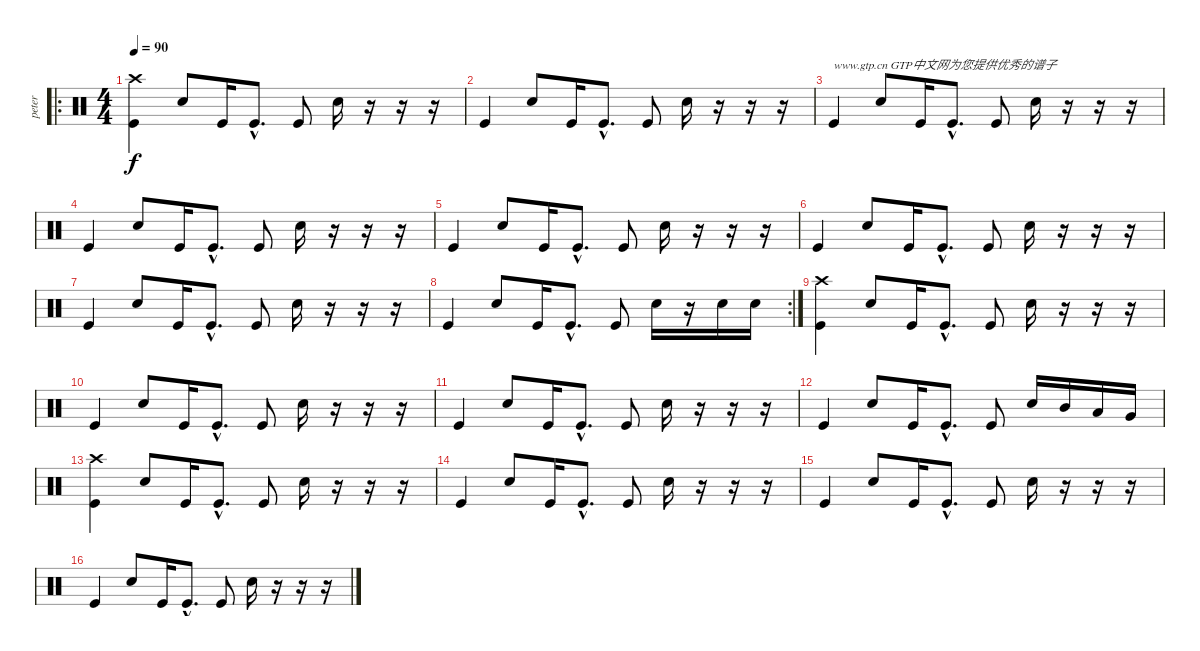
\track ("peter" "peter") {instrument percussion}
\staff {score}
\articulation defaults
\ro
\ts (4 4)
\tempo 90
\clef neutral
\ks c
("Crash high (hit)" "Kick (hit)").4{dy f} "Electric Snare (hit)".8 "Kick (hit)".16 "Kick (hit)"{hac}.8{d} "Kick (hit)".8 "Electric Snare (hit)".16 r.16 r.16 r.16 |
"Kick (hit)".4 "Electric Snare (hit)".8 "Kick (hit)".16 "Kick (hit)"{hac}.8{d} "Kick (hit)".8 "Electric Snare (hit)".16 r.16 r.16 r.16 |
"Kick (hit)".4{txt "www.gtp.cn GTP中文网为您提供优秀的谱子"} "Electric Snare (hit)".8 "Kick (hit)".16 "Kick (hit)"{hac}.8{d} "Kick (hit)".8 "Electric Snare (hit)".16 r.16 r.16 r.16 |
"Kick (hit)".4 "Electric Snare (hit)".8 "Kick (hit)".16 "Kick (hit)"{hac}.8{d} "Kick (hit)".8 "Electric Snare (hit)".16 r.16 r.16 r.16 |
"Kick (hit)".4 "Electric Snare (hit)".8 "Kick (hit)".16 "Kick (hit)"{hac}.8{d} "Kick (hit)".8 "Electric Snare (hit)".16 r.16 r.16 r.16 |
"Kick (hit)".4 "Electric Snare (hit)".8 "Kick (hit)".16 "Kick (hit)"{hac}.8{d} "Kick (hit)".8 "Electric Snare (hit)".16 r.16 r.16 r.16 |
"Kick (hit)".4 "Electric Snare (hit)".8 "Kick (hit)".16 "Kick (hit)"{hac}.8{d} "Kick (hit)".8 "Electric Snare (hit)".16 r.16 r.16 r.16 |
\rc 2 "Kick (hit)".4 "Electric Snare (hit)".8 "Kick (hit)".16 "Kick (hit)"{hac}.8{d} "Kick (hit)".8 "Electric Snare (hit)".16
r.16 "Electric Snare (hit)".16 "Electric Snare (hit)".16 |
("Crash high (hit)" "Kick (hit)").4 "Electric Snare (hit)".8 "Kick (hit)".16 "Kick (hit)"{hac}.8{d} "Kick (hit)".8 "Electric Snare (hit)".16 r.16 r.16 r.16 |
"Kick (hit)".4 "Electric Snare (hit)".8 "Kick (hit)".16 "Kick (hit)"{hac}.8{d} "Kick (hit)".8 "Electric Snare (hit)".16 r.16 r.16 r.16 |
"Kick (hit)".4 "Electric Snare (hit)".8 "Kick (hit)".16 "Kick (hit)"{hac}.8{d} "Kick (hit)".8 "Electric Snare (hit)".16 r.16 r.16 r.16 |
"Kick (hit)".4 "Electric Snare (hit)".8 "Kick (hit)".16 "Kick (hit)"{hac}.8{d} "Kick (hit)".8 "Electric Snare (hit)".16 "Mid Tom (hit)".16 "Low Tom (hit)".16 "Very Low Tom (hit)".16 |
("Crash high (hit)" "Kick (hit)").4 "Electric Snare (hit)".8 "Kick (hit)".16 "Kick (hit)"{hac}.8{d} "Kick (hit)".8 "Electric Snare (hit)".16 r.16 r.16 r.16 |
"Kick (hit)".4 "Electric Snare (hit)".8 "Kick (hit)".16 "Kick (hit)"{hac}.8{d} "Kick (hit)".8 "Electric Snare (hit)".16 r.16 r.16 r.16 |
"Kick (hit)".4 "Electric Snare (hit)".8 "Kick (hit)".16 "Kick (hit)"{hac}.8{d} "Kick (hit)".8 "Electric Snare (hit)".16 r.16 r.16 r.16 |
"Kick (hit)".4 "Electric Snare (hit)".8 "Kick (hit)".16 "Kick (hit)"{hac}.8{d} "Kick (hit)".8 "Electric Snare (hit)".16 r.16 r.16 r.16
